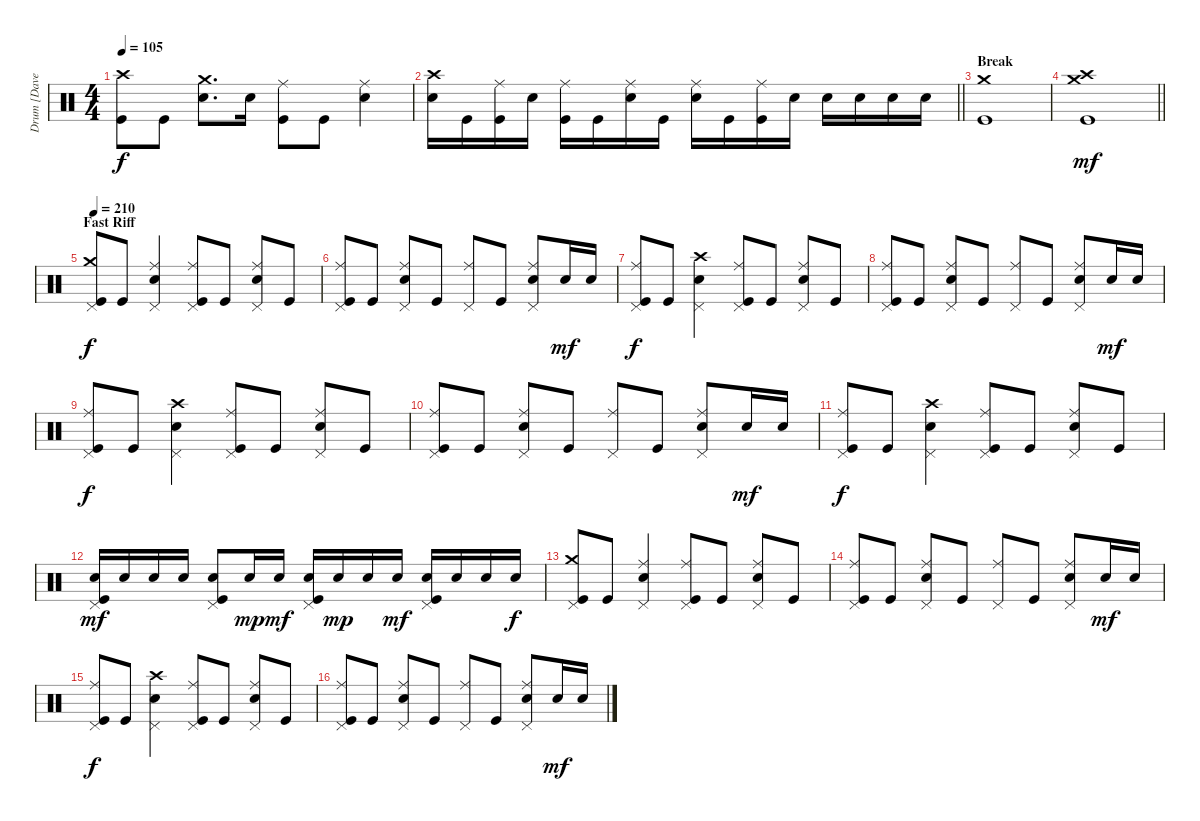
\track ("Drum [Dave Grohl]" "Drum [Dave") {instrument percussion bank 84}
\staff {score}
\articulation defaults
\ts (4 4)
\tempo 105
\clef neutral
\ks c
("Crash high (hit)" "Kick (hit)").8{dy f} "Kick (hit)".8 ("Crash medium (hit)" "Electric Snare (hit)").8{d} "Electric Snare (hit)".16 ("Ride (middle)" "Kick (hit)").8 "Kick (hit)".8 ("Ride (middle)" "Electric Snare (hit)").4 |
\barLineRight lightlight
("Crash high (hit)" "Electric Snare (hit)").16 "Kick (hit)".16 ("Ride (middle)" "Kick (hit)").16 "Electric Snare (hit)".16 ("Ride (middle)" "Kick (hit)").16 "Kick (hit)".16 ("Ride (middle)" "Electric Snare (hit)").16 "Kick (hit)".16 ("Ride (middle)" "Electric Snare (hit)").16 "Kick (hit)".16 ("Ride (middle)" "Kick (hit)").16 "Electric Snare (hit)".16 "Electric Snare (hit)".16 "Electric Snare (hit)".16 "Electric Snare (hit)".16 "Electric Snare (hit)".16 |
\section ("" "Break")
("Crash medium (hit)" "Kick (hit)").1 |
\barLineRight lightlight
("Crash high (hit)" "Crash medium (hit)" "Kick (hit)").1{dy mf balance 8} |
\section ("" "Fast Riff")
\tempo 210
("Pedal Hi-Hat (hit)" "Crash medium (hit)" "Kick (hit)").8{dy f} "Kick (hit)".8 ("Pedal Hi-Hat (hit)" "Ride (middle)" "Electric Snare (hit)").4 ("Pedal Hi-Hat (hit)" "Ride (middle)" "Kick (hit)").8 "Kick (hit)".8 ("Pedal Hi-Hat (hit)" "Ride (middle)" "Electric Snare (hit)").8 "Kick (hit)".8 |
("Pedal Hi-Hat (hit)" "Ride (middle)" "Kick (hit)").8 "Kick (hit)".8 ("Pedal Hi-Hat (hit)" "Ride (middle)" "Electric Snare (hit)").8 "Kick (hit)".8 ("Pedal Hi-Hat (hit)" "Ride (middle)").8 "Kick (hit)".8 ("Pedal Hi-Hat (hit)" "Ride (middle)" "Electric Snare (hit)").8 "Electric Snare (hit)".16{dy mf} "Electric Snare (hit)".16 |
("Pedal Hi-Hat (hit)" "Ride (middle)" "Kick (hit)").8{dy f} "Kick (hit)".8 ("Pedal Hi-Hat (hit)" "Crash high (hit)" "Electric Snare (hit)").4 ("Pedal Hi-Hat (hit)" "Ride (middle)" "Kick (hit)").8 "Kick (hit)".8 ("Pedal Hi-Hat (hit)" "Ride (middle)" "Electric Snare (hit)").8 "Kick (hit)".8 |
("Pedal Hi-Hat (hit)" "Ride (middle)" "Kick (hit)").8 "Kick (hit)".8 ("Pedal Hi-Hat (hit)" "Ride (middle)" "Electric Snare (hit)").8 "Kick (hit)".8 ("Pedal Hi-Hat (hit)" "Ride (middle)").8 "Kick (hit)".8 ("Pedal Hi-Hat (hit)" "Ride (middle)" "Electric Snare (hit)").8 "Electric Snare (hit)".16{dy mf} "Electric Snare (hit)".16 |
("Pedal Hi-Hat (hit)" "Ride (middle)" "Kick (hit)").8{dy f} "Kick (hit)".8 ("Pedal Hi-Hat (hit)" "Crash high (hit)" "Electric Snare (hit)").4 ("Pedal Hi-Hat (hit)" "Ride (middle)" "Kick (hit)").8 "Kick (hit)".8 ("Pedal Hi-Hat (hit)" "Ride (middle)" "Electric Snare (hit)").8 "Kick (hit)".8 |
("Pedal Hi-Hat (hit)" "Ride (middle)" "Kick (hit)").8 "Kick (hit)".8 ("Pedal Hi-Hat (hit)" "Ride (middle)" "Electric Snare (hit)").8 "Kick (hit)".8 ("Pedal Hi-Hat (hit)" "Ride (middle)").8 "Kick (hit)".8 ("Pedal Hi-Hat (hit)" "Ride (middle)" "Electric Snare (hit)").8 "Electric Snare (hit)".16{dy mf} "Electric Snare (hit)".16 |
("Pedal Hi-Hat (hit)" "Ride (middle)" "Kick (hit)").8{dy f} "Kick (hit)".8 ("Pedal Hi-Hat (hit)" "Crash high (hit)" "Electric Snare (hit)").4 ("Pedal Hi-Hat (hit)" "Ride (middle)" "Kick (hit)").8 "Kick (hit)".8 ("Pedal Hi-Hat (hit)" "Ride (middle)" "Electric Snare (hit)").8 "Kick (hit)".8 |
("Pedal Hi-Hat (hit)" "Electric Snare (hit)" "Kick (hit)").16{dy mf} "Electric Snare (hit)".16 "Electric Snare (hit)".16 "Electric Snare (hit)".16 ("Pedal Hi-Hat (hit)" "Electric Snare (hit)" "Kick (hit)").8 "Electric Snare (hit)".16{dy mp} "Electric Snare (hit)".16{dy mf} ("Pedal Hi-Hat (hit)" "Electric Snare (hit)" "Kick (hit)").16 "Electric Snare (hit)".16{dy mp} "Electric Snare (hit)".16 "Electric Snare (hit)".16{dy mf} ("Pedal Hi-Hat (hit)" "Electric Snare (hit)" "Kick (hit)").16 "Electric Snare (hit)".16 "Electric Snare (hit)".16 "Electric Snare (hit)".16{dy f} |
("Pedal Hi-Hat (hit)" "Crash medium (hit)" "Kick (hit)").8 "Kick (hit)".8 ("Pedal Hi-Hat (hit)" "Ride (middle)" "Electric Snare (hit)").4 ("Pedal Hi-Hat (hit)" "Ride (middle)" "Kick (hit)").8 "Kick (hit)".8 ("Pedal Hi-Hat (hit)" "Ride (middle)" "Electric Snare (hit)").8 "Kick (hit)".8 |
("Pedal Hi-Hat (hit)" "Ride (middle)" "Kick (hit)").8 "Kick (hit)".8 ("Pedal Hi-Hat (hit)" "Ride (middle)" "Electric Snare (hit)").8 "Kick (hit)".8 ("Pedal Hi-Hat (hit)" "Ride (middle)").8 "Kick (hit)".8 ("Pedal Hi-Hat (hit)" "Ride (middle)" "Electric Snare (hit)").8 "Electric Snare (hit)".16{dy mf} "Electric Snare (hit)".16 |
("Pedal Hi-Hat (hit)" "Ride (middle)" "Kick (hit)").8{dy f} "Kick (hit)".8 ("Pedal Hi-Hat (hit)" "Crash high (hit)" "Electric Snare (hit)").4 ("Pedal Hi-Hat (hit)" "Ride (middle)" "Kick (hit)").8 "Kick (hit)".8 ("Pedal Hi-Hat (hit)" "Ride (middle)" "Electric Snare (hit)").8 "Kick (hit)".8 |
("Pedal Hi-Hat (hit)" "Ride (middle)" "Kick (hit)").8 "Kick (hit)".8 ("Pedal Hi-Hat (hit)" "Ride (middle)" "Electric Snare (hit)").8 "Kick (hit)".8 ("Pedal Hi-Hat (hit)" "Ride (middle)").8 "Kick (hit)".8 ("Pedal Hi-Hat (hit)" "Ride (middle)" "Electric Snare (hit)").8 "Electric Snare (hit)".16{dy mf} "Electric Snare (hit)".16
